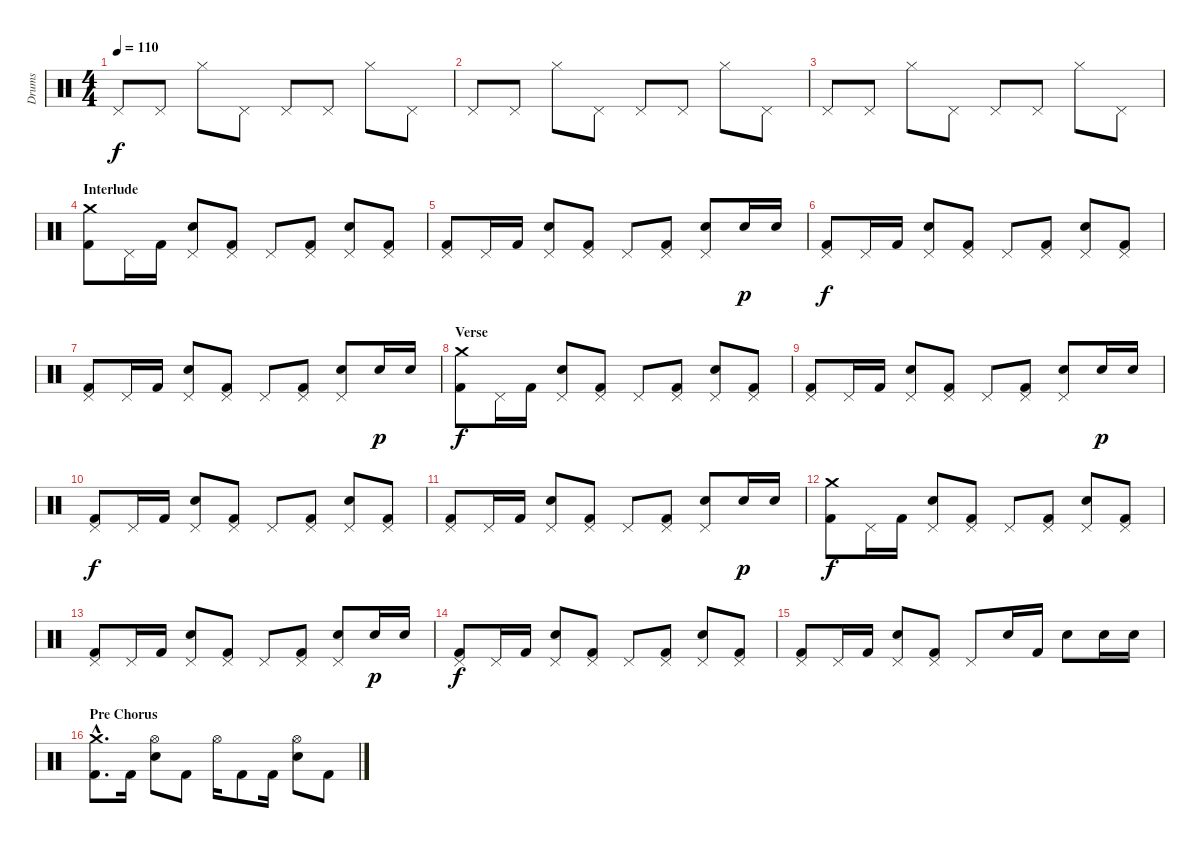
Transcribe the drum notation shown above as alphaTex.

\track ("Drums" "Drums") {instrument percussion}
\staff {score}
\articulation defaults
\ts (4 4)
\tempo 110
\clef neutral
\ks c "Pedal Hi-Hat (hit)".8{dy f} "Pedal Hi-Hat (hit)".8 "Hi-Hat (closed)".8 "Pedal Hi-Hat (hit)".8 "Pedal Hi-Hat (hit)".8 "Pedal Hi-Hat (hit)".8 "Hi-Hat (closed)".8 "Pedal Hi-Hat (hit)".8
|
"Pedal Hi-Hat (hit)".8 "Pedal Hi-Hat (hit)".8 "Hi-Hat (closed)".8 "Pedal Hi-Hat (hit)".8 "Pedal Hi-Hat (hit)".8 "Pedal Hi-Hat (hit)".8 "Hi-Hat (closed)".8 "Pedal Hi-Hat (hit)".8 |
"Pedal Hi-Hat (hit)".8 "Pedal Hi-Hat (hit)".8 "Hi-Hat (closed)".8 "Pedal Hi-Hat (hit)".8 "Pedal Hi-Hat (hit)".8 "Pedal Hi-Hat (hit)".8 "Hi-Hat (closed)".8 "Pedal Hi-Hat (hit)".8 |
\section ("" "Interlude")
("Crash medium (hit)" "Kick (hit) 2").8 "Pedal Hi-Hat (hit)".16 "Kick (hit) 2".16 ("Pedal Hi-Hat (hit)" "Electric Snare (hit)").8 ("Pedal Hi-Hat (hit)" "Kick (hit) 2").8 "Pedal Hi-Hat (hit)".8 ("Pedal Hi-Hat (hit)" "Kick (hit) 2").8 ("Pedal Hi-Hat (hit)" "Electric Snare (hit)").8 ("Pedal Hi-Hat (hit)" "Kick (hit) 2").8 |
("Pedal Hi-Hat (hit)" "Kick (hit) 2").8 "Pedal Hi-Hat (hit)".16 "Kick (hit) 2".16 ("Pedal Hi-Hat (hit)" "Electric Snare (hit)").8 ("Pedal Hi-Hat (hit)" "Kick (hit) 2").8 "Pedal Hi-Hat (hit)".8 ("Pedal Hi-Hat (hit)" "Kick (hit) 2").8 ("Pedal Hi-Hat (hit)" "Electric Snare (hit)").8 "Electric Snare (hit)".16{dy p} "Electric Snare (hit)".16 |
("Pedal Hi-Hat (hit)" "Kick (hit) 2").8{dy f} "Pedal Hi-Hat (hit)".16 "Kick (hit) 2".16 ("Pedal Hi-Hat (hit)" "Electric Snare (hit)").8 ("Pedal Hi-Hat (hit)" "Kick (hit) 2").8 "Pedal Hi-Hat (hit)".8 ("Pedal Hi-Hat (hit)" "Kick (hit) 2").8 ("Pedal Hi-Hat (hit)" "Electric Snare (hit)").8 ("Pedal Hi-Hat (hit)" "Kick (hit) 2").8 |
("Pedal Hi-Hat (hit)" "Kick (hit) 2").8 "Pedal Hi-Hat (hit)".16 "Kick (hit) 2".16 ("Pedal Hi-Hat (hit)" "Electric Snare (hit)").8 ("Pedal Hi-Hat (hit)" "Kick (hit) 2").8 "Pedal Hi-Hat (hit)".8 ("Pedal Hi-Hat (hit)" "Kick (hit) 2").8 ("Pedal Hi-Hat (hit)" "Electric Snare (hit)").8 "Electric Snare (hit)".16{dy p} "Electric Snare (hit)".16 |
\section ("" "Verse")
("Crash medium (hit)" "Kick (hit) 2").8{dy f} "Pedal Hi-Hat (hit)".16 "Kick (hit) 2".16 ("Pedal Hi-Hat (hit)" "Electric Snare (hit)").8 ("Pedal Hi-Hat (hit)" "Kick (hit) 2").8 "Pedal Hi-Hat (hit)".8 ("Pedal Hi-Hat (hit)" "Kick (hit) 2").8 ("Pedal Hi-Hat (hit)" "Electric Snare (hit)").8 ("Pedal Hi-Hat (hit)" "Kick (hit) 2").8 |
("Pedal Hi-Hat (hit)" "Kick (hit) 2").8 "Pedal Hi-Hat (hit)".16 "Kick (hit) 2".16 ("Pedal Hi-Hat (hit)" "Electric Snare (hit)").8 ("Pedal Hi-Hat (hit)" "Kick (hit) 2").8 "Pedal Hi-Hat (hit)".8 ("Pedal Hi-Hat (hit)" "Kick (hit) 2").8 ("Pedal Hi-Hat (hit)" "Electric Snare (hit)").8 "Electric Snare (hit)".16{dy p} "Electric Snare (hit)".16 |
("Pedal Hi-Hat (hit)" "Kick (hit) 2").8{dy f} "Pedal Hi-Hat (hit)".16 "Kick (hit) 2".16 ("Pedal Hi-Hat (hit)" "Electric Snare (hit)").8 ("Pedal Hi-Hat (hit)" "Kick (hit) 2").8 "Pedal Hi-Hat (hit)".8 ("Pedal Hi-Hat (hit)" "Kick (hit) 2").8 ("Pedal Hi-Hat (hit)" "Electric Snare (hit)").8 ("Pedal Hi-Hat (hit)" "Kick (hit) 2").8 |
("Pedal Hi-Hat (hit)" "Kick (hit) 2").8 "Pedal Hi-Hat (hit)".16 "Kick (hit) 2".16 ("Pedal Hi-Hat (hit)" "Electric Snare (hit)").8 ("Pedal Hi-Hat (hit)" "Kick (hit) 2").8 "Pedal Hi-Hat (hit)".8 ("Pedal Hi-Hat (hit)" "Kick (hit) 2").8 ("Pedal Hi-Hat (hit)" "Electric Snare (hit)").8 "Electric Snare (hit)".16{dy p} "Electric Snare (hit)".16 |
("Crash medium (hit)" "Kick (hit) 2").8{dy f} "Pedal Hi-Hat (hit)".16 "Kick (hit) 2".16 ("Pedal Hi-Hat (hit)" "Electric Snare (hit)").8 ("Pedal Hi-Hat (hit)" "Kick (hit) 2").8 "Pedal Hi-Hat (hit)".8 ("Pedal Hi-Hat (hit)" "Kick (hit) 2").8 ("Pedal Hi-Hat (hit)" "Electric Snare (hit)").8 ("Pedal Hi-Hat (hit)" "Kick (hit) 2").8 |
("Pedal Hi-Hat (hit)" "Kick (hit) 2").8 "Pedal Hi-Hat (hit)".16 "Kick (hit) 2".16 ("Pedal Hi-Hat (hit)" "Electric Snare (hit)").8 ("Pedal Hi-Hat (hit)" "Kick (hit) 2").8 "Pedal Hi-Hat (hit)".8 ("Pedal Hi-Hat (hit)" "Kick (hit) 2").8 ("Pedal Hi-Hat (hit)" "Electric Snare (hit)").8 "Electric Snare (hit)".16{dy p} "Electric Snare (hit)".16 |
("Pedal Hi-Hat (hit)" "Kick (hit) 2").8{dy f} "Pedal Hi-Hat (hit)".16 "Kick (hit) 2".16 ("Pedal Hi-Hat (hit)" "Electric Snare (hit)").8 ("Pedal Hi-Hat (hit)" "Kick (hit) 2").8 "Pedal Hi-Hat (hit)".8 ("Pedal Hi-Hat (hit)" "Kick (hit) 2").8 ("Pedal Hi-Hat (hit)" "Electric Snare (hit)").8 ("Pedal Hi-Hat (hit)" "Kick (hit) 2").8 |
("Pedal Hi-Hat (hit)" "Kick (hit) 2").8 "Pedal Hi-Hat (hit)".16 "Kick (hit) 2".16 ("Pedal Hi-Hat (hit)" "Electric Snare (hit)").8 ("Pedal Hi-Hat (hit)" "Kick (hit) 2").8 "Pedal Hi-Hat (hit)".8 "Electric Snare (hit)".16 "Kick (hit) 2".16 "Electric Snare (hit)".8 "Electric Snare (hit)".16 "Electric Snare (hit)".16 |
\section ("" "Pre Chorus")
("Crash medium (hit)"{hac} "Kick (hit) 2"{hac}).8{d} "Kick (hit) 2".16 ("Hi-Hat (open)" "Electric Snare (hit)").8 "Kick (hit) 2".8 "Hi-Hat (open)".16 "Kick (hit) 2".8 "Kick (hit) 2".16 ("Hi-Hat (open)" "Electric Snare (hit)").8 "Kick (hit) 2".8
